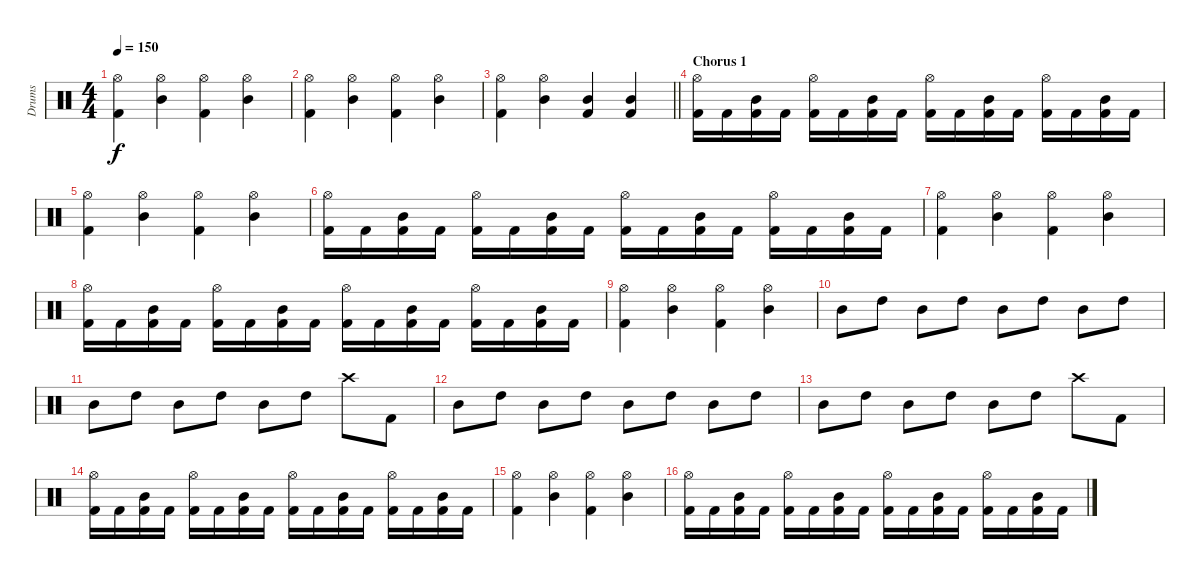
\track ("Drums" "Drums") {instrument percussion}
\staff {score}
\articulation defaults
\ts (4 4)
\tempo 150
\clef neutral
\ks c
("Kick (hit) 2" "Hi-Hat (open)").4{dy f} ("Mid Tom (hit)" "Hi-Hat (open)").4 ("Kick (hit) 2" "Hi-Hat (open)").4 ("Mid Tom (hit)" "Hi-Hat (open)").4 |
("Kick (hit) 2" "Hi-Hat (open)").4 ("Mid Tom (hit)" "Hi-Hat (open)").4 ("Kick (hit) 2" "Hi-Hat (open)").4 ("Mid Tom (hit)" "Hi-Hat (open)").4 |
\barLineRight lightlight
("Kick (hit) 2" "Hi-Hat (open)").4 ("Mid Tom (hit)" "Hi-Hat (open)").4 ("Kick (hit) 2" "Mid Tom (hit)").4 ("Kick (hit) 2" "Mid Tom (hit)").4 |
\section ("" "Chorus 1")
("Kick (hit) 2" "Hi-Hat (open)").16 "Kick (hit) 2".16 ("Kick (hit) 2" "Mid Tom (hit)").16 "Kick (hit) 2".16 ("Kick (hit) 2" "Hi-Hat (open)").16 "Kick (hit) 2".16 ("Kick (hit) 2" "Mid Tom (hit)").16 "Kick (hit) 2".16 ("Kick (hit) 2" "Hi-Hat (open)").16 "Kick (hit) 2".16 ("Kick (hit) 2" "Mid Tom (hit)").16 "Kick (hit) 2".16 ("Kick (hit) 2" "Hi-Hat (open)").16 "Kick (hit) 2".16 ("Kick (hit) 2" "Mid Tom (hit)").16 "Kick (hit) 2".16 |
("Kick (hit) 2" "Hi-Hat (open)").4 ("Mid Tom (hit)" "Hi-Hat (open)").4 ("Kick (hit) 2" "Hi-Hat (open)").4 ("Mid Tom (hit)" "Hi-Hat (open)").4 |
("Kick (hit) 2" "Hi-Hat (open)").16 "Kick (hit) 2".16 ("Kick (hit) 2" "Mid Tom (hit)").16 "Kick (hit) 2".16 ("Kick (hit) 2" "Hi-Hat (open)").16 "Kick (hit) 2".16 ("Kick (hit) 2" "Mid Tom (hit)").16 "Kick (hit) 2".16 ("Kick (hit) 2" "Hi-Hat (open)").16 "Kick (hit) 2".16 ("Kick (hit) 2" "Mid Tom (hit)").16 "Kick (hit) 2".16 ("Kick (hit) 2" "Hi-Hat (open)").16 "Kick (hit) 2".16 ("Kick (hit) 2" "Mid Tom (hit)").16 "Kick (hit) 2".16 |
("Kick (hit) 2" "Hi-Hat (open)").4 ("Mid Tom (hit)" "Hi-Hat (open)").4 ("Kick (hit) 2" "Hi-Hat (open)").4 ("Mid Tom (hit)" "Hi-Hat (open)").4 |
("Kick (hit) 2" "Hi-Hat (open)").16 "Kick (hit) 2".16 ("Kick (hit) 2" "Mid Tom (hit)").16 "Kick (hit) 2".16 ("Kick (hit) 2" "Hi-Hat (open)").16 "Kick (hit) 2".16 ("Kick (hit) 2" "Mid Tom (hit)").16 "Kick (hit) 2".16 ("Kick (hit) 2" "Hi-Hat (open)").16 "Kick (hit) 2".16 ("Kick (hit) 2" "Mid Tom (hit)").16 "Kick (hit) 2".16 ("Kick (hit) 2" "Hi-Hat (open)").16 "Kick (hit) 2".16 ("Kick (hit) 2" "Mid Tom (hit)").16 "Kick (hit) 2".16 |
("Kick (hit) 2" "Hi-Hat (open)").4 ("Mid Tom (hit)" "Hi-Hat (open)").4 ("Kick (hit) 2" "Hi-Hat (open)").4 ("Mid Tom (hit)" "Hi-Hat (open)").4 |
"Mid Tom (hit)".8 "High Tom (hit)".8 "Mid Tom (hit)".8 "High Tom (hit)".8 "Mid Tom (hit)".8 "High Tom (hit)".8 "Mid Tom (hit)".8 "High Tom (hit)".8 |
"Mid Tom (hit)".8 "High Tom (hit)".8 "Mid Tom (hit)".8 "High Tom (hit)".8 "Mid Tom (hit)".8 "High Tom (hit)".8 "Crash high (hit)".8 "Kick (hit) 2".8 |
"Mid Tom (hit)".8 "High Tom (hit)".8 "Mid Tom (hit)".8 "High Tom (hit)".8 "Mid Tom (hit)".8 "High Tom (hit)".8 "Mid Tom (hit)".8 "High Tom (hit)".8 |
"Mid Tom (hit)".8 "High Tom (hit)".8 "Mid Tom (hit)".8 "High Tom (hit)".8 "Mid Tom (hit)".8 "High Tom (hit)".8 "Crash high (hit)".8 "Kick (hit) 2".8 |
("Kick (hit) 2" "Hi-Hat (open)").16 "Kick (hit) 2".16 ("Kick (hit) 2" "Mid Tom (hit)").16 "Kick (hit) 2".16 ("Kick (hit) 2" "Hi-Hat (open)").16 "Kick (hit) 2".16 ("Kick (hit) 2" "Mid Tom (hit)").16 "Kick (hit) 2".16 ("Kick (hit) 2" "Hi-Hat (open)").16 "Kick (hit) 2".16 ("Kick (hit) 2" "Mid Tom (hit)").16 "Kick (hit) 2".16 ("Kick (hit) 2" "Hi-Hat (open)").16 "Kick (hit) 2".16 ("Kick (hit) 2" "Mid Tom (hit)").16 "Kick (hit) 2".16 |
("Kick (hit) 2" "Hi-Hat (open)").4 ("Mid Tom (hit)" "Hi-Hat (open)").4 ("Kick (hit) 2" "Hi-Hat (open)").4 ("Mid Tom (hit)" "Hi-Hat (open)").4 |
("Kick (hit) 2" "Hi-Hat (open)").16 "Kick (hit) 2".16 ("Kick (hit) 2" "Mid Tom (hit)").16 "Kick (hit) 2".16 ("Kick (hit) 2" "Hi-Hat (open)").16 "Kick (hit) 2".16 ("Kick (hit) 2" "Mid Tom (hit)").16 "Kick (hit) 2".16 ("Kick (hit) 2" "Hi-Hat (open)").16 "Kick (hit) 2".16 ("Kick (hit) 2" "Mid Tom (hit)").16 "Kick (hit) 2".16 ("Kick (hit) 2" "Hi-Hat (open)").16 "Kick (hit) 2".16 ("Kick (hit) 2" "Mid Tom (hit)").16 "Kick (hit) 2".16
